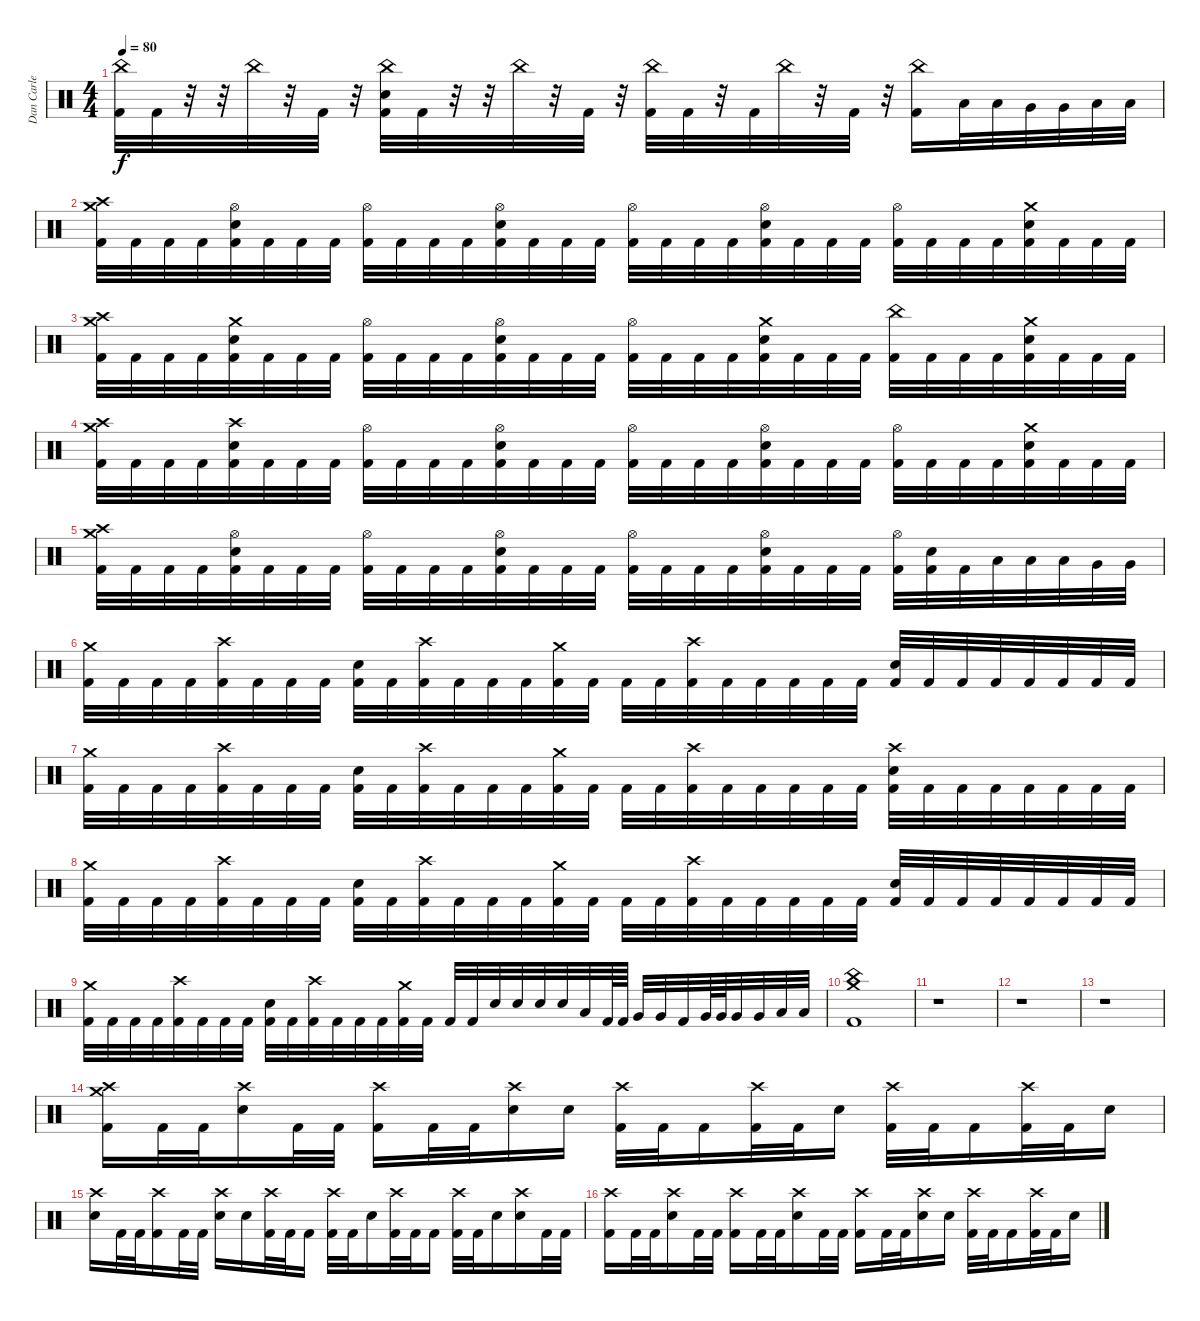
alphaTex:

\track ("Dan Carle" "Dan Carle") {instrument percussion}
\staff {score}
\articulation defaults
\ts (4 4)
\tempo 80
\clef neutral
\ks c
("China (hit)" "Kick (hit) 2").32{dy f} "Kick (hit) 2".32 r.32 r.32 "China (hit)".32 r.32 "Kick (hit) 2".32 r.32 ("China (hit)" "Snare (hit) 2" "Kick (hit) 2").32 "Kick (hit) 2".32 r.32 r.32 "China (hit)".32 r.32 "Kick (hit) 2".32 r.32 ("China (hit)" "Kick (hit) 2").32 "Kick (hit) 2".32 r.32 "Kick (hit) 2".32 "China (hit)".32 r.32 "Kick (hit) 2".32 r.32 ("China (hit)" "Kick (hit) 2").16 "Low Tom (hit)".32 "Low Tom (hit)".32 "Very Low Tom (hit)".32 "Very Low Tom (hit)".32 "Low Floor Tom (hit)".32 "Low Floor Tom (hit)".32 |
("Crash medium (hit)" "Crash high (hit)" "Kick (hit) 2").32 "Kick (hit) 2".32 "Kick (hit) 2".32 "Kick (hit) 2".32 ("Hi-Hat (open)" "Snare (hit) 2" "Kick (hit) 2").32 "Kick (hit) 2".32 "Kick (hit) 2".32 "Kick (hit) 2".32 ("Hi-Hat (open)" "Kick (hit) 2").32 "Kick (hit) 2".32 "Kick (hit) 2".32 "Kick (hit) 2".32 ("Hi-Hat (open)" "Snare (hit) 2" "Kick (hit) 2").32 "Kick (hit) 2".32 "Kick (hit) 2".32 "Kick (hit) 2".32 ("Hi-Hat (open)" "Kick (hit) 2").32 "Kick (hit) 2".32 "Kick (hit) 2".32 "Kick (hit) 2".32 ("Hi-Hat (open)" "Snare (hit) 2" "Kick (hit) 2").32 "Kick (hit) 2".32 "Kick (hit) 2".32 "Kick (hit) 2".32 ("Hi-Hat (open)" "Kick (hit) 2").32 "Kick (hit) 2".32 "Kick (hit) 2".32 "Kick (hit) 2".32 ("Crash medium (hit)" "Snare (hit) 2" "Kick (hit) 2").32 "Kick (hit) 2".32 "Kick (hit) 2".32 "Kick (hit) 2".32 |
("Crash medium (hit)" "Crash high (hit)" "Kick (hit) 2").32 "Kick (hit) 2".32 "Kick (hit) 2".32 "Kick (hit) 2".32 ("Crash medium (hit)" "Snare (hit) 2" "Kick (hit) 2").32 "Kick (hit) 2".32 "Kick (hit) 2".32 "Kick (hit) 2".32 ("Hi-Hat (open)" "Kick (hit) 2").32 "Kick (hit) 2".32 "Kick (hit) 2".32 "Kick (hit) 2".32 ("Hi-Hat (open)" "Snare (hit) 2" "Kick (hit) 2").32 "Kick (hit) 2".32 "Kick (hit) 2".32 "Kick (hit) 2".32 ("Hi-Hat (open)" "Kick (hit) 2").32 "Kick (hit) 2".32 "Kick (hit) 2".32 "Kick (hit) 2".32 ("Crash medium (hit)" "Snare (hit) 2" "Kick (hit) 2").32 "Kick (hit) 2".32 "Kick (hit) 2".32 "Kick (hit) 2".32 ("China (hit)" "Kick (hit) 2").32 "Kick (hit) 2".32 "Kick (hit) 2".32 "Kick (hit) 2".32 ("Crash medium (hit)" "Snare (hit) 2" "Kick (hit) 2").32 "Kick (hit) 2".32 "Kick (hit) 2".32 "Kick (hit) 2".32 |
("Crash medium (hit)" "Crash high (hit)" "Kick (hit) 2").32 "Kick (hit) 2".32 "Kick (hit) 2".32 "Kick (hit) 2".32 ("Crash high (hit)" "Snare (hit) 2" "Kick (hit) 2").32 "Kick (hit) 2".32 "Kick (hit) 2".32 "Kick (hit) 2".32 ("Hi-Hat (open)" "Kick (hit) 2").32 "Kick (hit) 2".32 "Kick (hit) 2".32 "Kick (hit) 2".32 ("Hi-Hat (open)" "Snare (hit) 2" "Kick (hit) 2").32 "Kick (hit) 2".32 "Kick (hit) 2".32 "Kick (hit) 2".32 ("Hi-Hat (open)" "Kick (hit) 2").32 "Kick (hit) 2".32 "Kick (hit) 2".32 "Kick (hit) 2".32 ("Hi-Hat (open)" "Snare (hit) 2" "Kick (hit) 2").32 "Kick (hit) 2".32 "Kick (hit) 2".32 "Kick (hit) 2".32 ("Hi-Hat (open)" "Kick (hit) 2").32 "Kick (hit) 2".32 "Kick (hit) 2".32 "Kick (hit) 2".32 ("Crash medium (hit)" "Snare (hit) 2" "Kick (hit) 2").32 "Kick (hit) 2".32 "Kick (hit) 2".32 "Kick (hit) 2".32 |
("Crash medium (hit)" "Crash high (hit)" "Kick (hit) 2").32 "Kick (hit) 2".32 "Kick (hit) 2".32 "Kick (hit) 2".32 ("Hi-Hat (open)" "Snare (hit) 2" "Kick (hit) 2").32 "Kick (hit) 2".32 "Kick (hit) 2".32 "Kick (hit) 2".32 ("Hi-Hat (open)" "Kick (hit) 2").32 "Kick (hit) 2".32 "Kick (hit) 2".32 "Kick (hit) 2".32 ("Hi-Hat (open)" "Snare (hit) 2" "Kick (hit) 2").32 "Kick (hit) 2".32 "Kick (hit) 2".32 "Kick (hit) 2".32 ("Hi-Hat (open)" "Kick (hit) 2").32 "Kick (hit) 2".32 "Kick (hit) 2".32 "Kick (hit) 2".32 ("Hi-Hat (open)" "Snare (hit) 2" "Kick (hit) 2").32 "Kick (hit) 2".32 "Kick (hit) 2".32 "Kick (hit) 2".32 ("Hi-Hat (open)" "Kick (hit) 2").32 ("Snare (hit) 2" "Kick (hit) 2").32 "Kick (hit) 2".32 "Low Tom (hit)".32 "Low Tom (hit)".32 "Low Tom (hit)".32 "Very Low Tom (hit)".32 "Very Low Tom (hit)".32 |
("Crash medium (hit)" "Kick (hit) 2").32 "Kick (hit) 2".32 "Kick (hit) 2".32 "Kick (hit) 2".32 ("Crash high (hit)" "Kick (hit) 2").32 "Kick (hit) 2".32 "Kick (hit) 2".32 "Kick (hit) 2".32 ("Snare (hit) 2" "Kick (hit) 2").32 "Kick (hit) 2".32 ("Crash high (hit)" "Kick (hit) 2").32 "Kick (hit) 2".32 "Kick (hit) 2".32 "Kick (hit) 2".32 ("Crash medium (hit)" "Kick (hit) 2").32 "Kick (hit) 2".32 "Kick (hit) 2".32 "Kick (hit) 2".32 ("Crash high (hit)" "Kick (hit) 2").32 "Kick (hit) 2".32 "Kick (hit) 2".32 "Kick (hit) 2".32 "Kick (hit) 2".32 "Kick (hit) 2".32 ("Snare (hit) 2" "Kick (hit) 2").32 "Kick (hit) 2".32 "Kick (hit) 2".32 "Kick (hit) 2".32 "Kick (hit) 2".32 "Kick (hit) 2".32 "Kick (hit) 2".32 "Kick (hit) 2".32 |
("Crash medium (hit)" "Kick (hit) 2").32 "Kick (hit) 2".32 "Kick (hit) 2".32 "Kick (hit) 2".32 ("Crash high (hit)" "Kick (hit) 2").32 "Kick (hit) 2".32 "Kick (hit) 2".32 "Kick (hit) 2".32 ("Snare (hit) 2" "Kick (hit) 2").32 "Kick (hit) 2".32 ("Crash high (hit)" "Kick (hit) 2").32 "Kick (hit) 2".32 "Kick (hit) 2".32 "Kick (hit) 2".32 ("Crash medium (hit)" "Kick (hit) 2").32 "Kick (hit) 2".32 "Kick (hit) 2".32 "Kick (hit) 2".32 ("Crash high (hit)" "Kick (hit) 2").32 "Kick (hit) 2".32 "Kick (hit) 2".32 "Kick (hit) 2".32 "Kick (hit) 2".32 "Kick (hit) 2".32 ("Crash high (hit)" "Snare (hit) 2" "Kick (hit) 2").32 "Kick (hit) 2".32 "Kick (hit) 2".32 "Kick (hit) 2".32 "Kick (hit) 2".32 "Kick (hit) 2".32 "Kick (hit) 2".32 "Kick (hit) 2".32 |
("Crash medium (hit)" "Kick (hit) 2").32 "Kick (hit) 2".32 "Kick (hit) 2".32 "Kick (hit) 2".32 ("Crash high (hit)" "Kick (hit) 2").32 "Kick (hit) 2".32 "Kick (hit) 2".32 "Kick (hit) 2".32 ("Snare (hit) 2" "Kick (hit) 2").32 "Kick (hit) 2".32 ("Crash high (hit)" "Kick (hit) 2").32 "Kick (hit) 2".32 "Kick (hit) 2".32 "Kick (hit) 2".32 ("Crash medium (hit)" "Kick (hit) 2").32 "Kick (hit) 2".32 "Kick (hit) 2".32 "Kick (hit) 2".32 ("Crash high (hit)" "Kick (hit) 2").32 "Kick (hit) 2".32 "Kick (hit) 2".32 "Kick (hit) 2".32 "Kick (hit) 2".32 "Kick (hit) 2".32 ("Snare (hit) 2" "Kick (hit) 2").32 "Kick (hit) 2".32 "Kick (hit) 2".32 "Kick (hit) 2".32 "Kick (hit) 2".32 "Kick (hit) 2".32 "Kick (hit) 2".32 "Kick (hit) 2".32 |
("Crash medium (hit)" "Kick (hit) 2").32 "Kick (hit) 2".32 "Kick (hit) 2".32 "Kick (hit) 2".32 ("Crash high (hit)" "Kick (hit) 2").32 "Kick (hit) 2".32 "Kick (hit) 2".32 "Kick (hit) 2".32 ("Snare (hit) 2" "Kick (hit) 2").32 "Kick (hit) 2".32 ("Crash high (hit)" "Kick (hit) 2").32 "Kick (hit) 2".32 "Kick (hit) 2".32 "Kick (hit) 2".32 ("Crash medium (hit)" "Kick (hit) 2").32 "Kick (hit) 2".32 "Kick (hit) 2".32 "Kick (hit) 2".32 "Snare (hit) 2".32 "Snare (hit) 2".32 "Snare (hit) 2".32 "Snare (hit) 2".32 "Low Tom (hit)".32 "Kick (hit) 2".64 "Kick (hit) 2".64 "Very Low Tom (hit)".32 "Very Low Tom (hit)".32 "Kick (hit) 2".32 "Very Low Tom (hit)".64 "Very Low Tom (hit)".64 "Very Low Tom (hit)".32 "Very Low Tom (hit)".32 "Low Floor Tom (hit)".32 "Low Floor Tom (hit)".32 |
("China (hit)" "Crash medium (hit)" "Kick (hit) 2").1 |
r.1 |
r.1 |
r.1 |
("Crash medium (hit)" "Crash high (hit)" "Kick (hit) 2").16 "Kick (hit) 2".32 "Kick (hit) 2".32 ("Crash high (hit)" "Snare (hit) 2").16 "Kick (hit) 2".32 "Kick (hit) 2".32 ("Crash high (hit)" "Kick (hit) 2").16 "Kick (hit) 2".32 "Kick (hit) 2".32 ("Crash high (hit)" "Snare (hit) 2").16 "Snare (hit) 2".16 ("Crash high (hit)" "Kick (hit) 2").32 "Kick (hit) 2".32 "Kick (hit) 2".16 ("Crash high (hit)" "Kick (hit) 2").32 "Kick (hit) 2".32 "Snare (hit) 2".16 ("Crash high (hit)" "Kick (hit) 2").32 "Kick (hit) 2".32 "Kick (hit) 2".16 ("Crash high (hit)" "Kick (hit) 2").32 "Kick (hit) 2".32 "Snare (hit) 2".16 |
("Crash high (hit)" "Snare (hit) 2").16 "Kick (hit) 2".32 "Kick (hit) 2".32 ("Crash high (hit)" "Kick (hit) 2").16 "Kick (hit) 2".32 "Kick (hit) 2".32 ("Crash high (hit)" "Snare (hit) 2").16 "Snare (hit) 2".16 ("Crash high (hit)" "Kick (hit) 2").32 "Kick (hit) 2".32 "Kick (hit) 2".16 ("Crash high (hit)" "Kick (hit) 2").32 "Kick (hit) 2".32 "Snare (hit) 2".16 ("Crash high (hit)" "Kick (hit) 2").32 "Kick (hit) 2".32 "Kick (hit) 2".16 ("Crash high (hit)" "Kick (hit) 2").32 "Kick (hit) 2".32 "Snare (hit) 2".16 ("Crash high (hit)" "Snare (hit) 2").16 "Kick (hit) 2".32 "Kick (hit) 2".32 |
("Crash high (hit)" "Kick (hit) 2").16 "Kick (hit) 2".32 "Kick (hit) 2".32 ("Crash high (hit)" "Snare (hit) 2").16 "Kick (hit) 2".32 "Kick (hit) 2".32 ("Crash high (hit)" "Kick (hit) 2").16 "Kick (hit) 2".32 "Kick (hit) 2".32 ("Crash high (hit)" "Snare (hit) 2").16 "Kick (hit) 2".32 "Kick (hit) 2".32 ("Crash high (hit)" "Kick (hit) 2").16 "Kick (hit) 2".32 "Kick (hit) 2".32 ("Crash high (hit)" "Snare (hit) 2").16 "Snare (hit) 2".16 ("Crash high (hit)" "Kick (hit) 2").32 "Kick (hit) 2".32 "Kick (hit) 2".16 ("Crash high (hit)" "Kick (hit) 2").32 "Kick (hit) 2".32 "Snare (hit) 2".16
